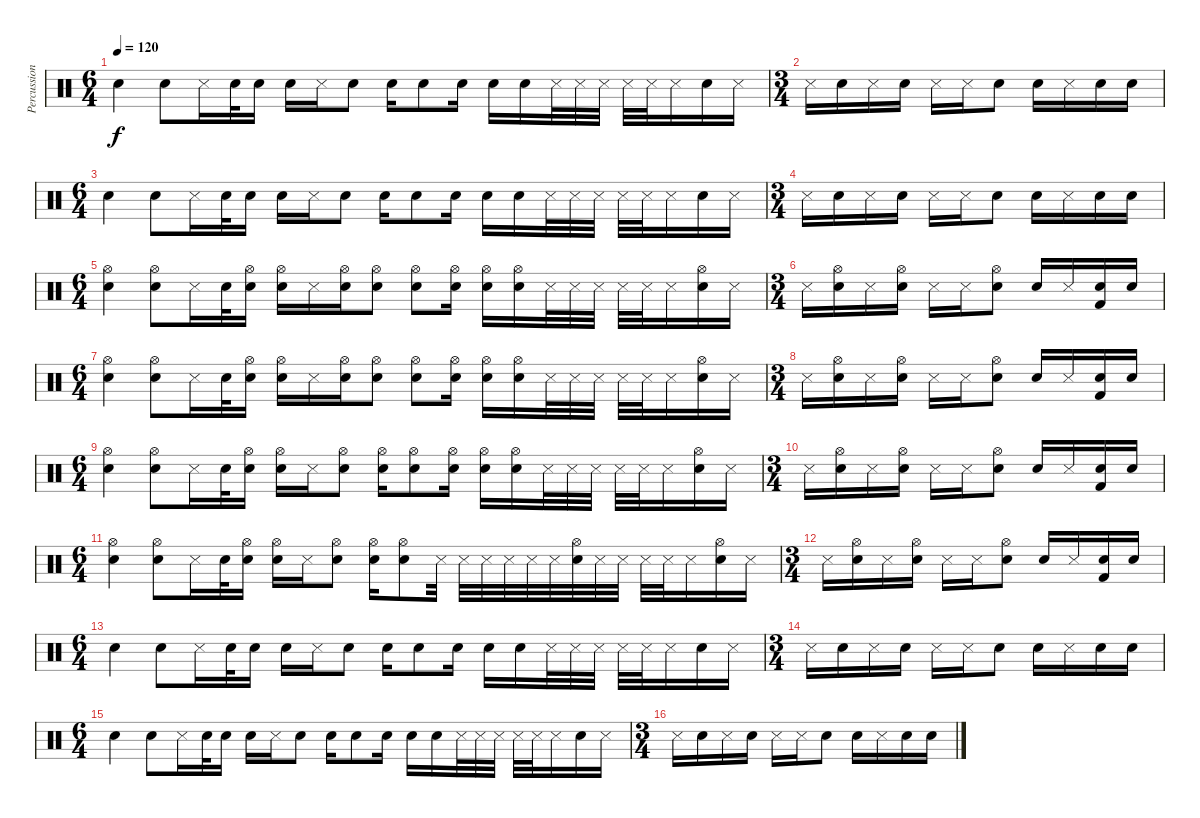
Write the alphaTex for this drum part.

\track ("Percussions" "Percussion") {instrument percussion}
\staff {score}
\articulation defaults
\ts (6 4)
\tempo 120
\clef neutral
\ks c "Snare (hit) 2".4{dy f} "Snare (hit) 2".8 "Metronome (hit)".16 "Snare (hit) 2".32 "Snare (hit) 2".16 "Snare (hit) 2".16 "Metronome (hit)".16 "Snare (hit) 2".8 "Snare (hit) 2".16 "Snare (hit) 2".8 "Snare (hit) 2".16 "Snare (hit) 2".16 "Snare (hit) 2".16 "Metronome (hit)".32 "Metronome (hit)".32 "Metronome (hit)".32 "Metronome (hit)".32 "Metronome (hit)".32 "Metronome (hit)".16 "Snare (hit) 2".16 "Metronome (hit)".16
|
\ts (3 4)
"Metronome (hit)".16 "Snare (hit) 2".16 "Metronome (hit)".16 "Snare (hit) 2".16 "Metronome (hit)".16 "Metronome (hit)".16 "Snare (hit) 2".8 "Snare (hit) 2".16 "Metronome (hit)".16 "Snare (hit) 2".16 "Snare (hit) 2".16 |
\ts (6 4)
"Snare (hit) 2".4 "Snare (hit) 2".8 "Metronome (hit)".16 "Snare (hit) 2".32 "Snare (hit) 2".16 "Snare (hit) 2".16 "Metronome (hit)".16 "Snare (hit) 2".8 "Snare (hit) 2".16 "Snare (hit) 2".8 "Snare (hit) 2".16 "Snare (hit) 2".16 "Snare (hit) 2".16 "Metronome (hit)".32 "Metronome (hit)".32 "Metronome (hit)".32 "Metronome (hit)".32 "Metronome (hit)".32 "Metronome (hit)".16 "Snare (hit) 2".16 "Metronome (hit)".16 |
\ts (3 4)
"Metronome (hit)".16 "Snare (hit) 2".16 "Metronome (hit)".16 "Snare (hit) 2".16 "Metronome (hit)".16 "Metronome (hit)".16 "Snare (hit) 2".8 "Snare (hit) 2".16 "Metronome (hit)".16 "Snare (hit) 2".16 "Snare (hit) 2".16 |
\ts (6 4)
("Hi-Hat (open)" "Snare (hit) 2").4 ("Hi-Hat (open)" "Snare (hit) 2").8 "Metronome (hit)".16 "Snare (hit) 2".32 ("Hi-Hat (open)" "Snare (hit) 2").16 ("Hi-Hat (open)" "Snare (hit) 2").16 "Metronome (hit)".16 ("Hi-Hat (open)" "Snare (hit) 2").16 ("Hi-Hat (open)" "Snare (hit) 2").8 ("Hi-Hat (open)" "Snare (hit) 2").8 ("Hi-Hat (open)" "Snare (hit) 2").16 ("Hi-Hat (open)" "Snare (hit) 2").16 ("Hi-Hat (open)" "Snare (hit) 2").16 "Metronome (hit)".32 "Metronome (hit)".32 "Metronome (hit)".32 "Metronome (hit)".32 "Metronome (hit)".32 "Metronome (hit)".16 ("Hi-Hat (open)" "Snare (hit) 2").16 "Metronome (hit)".16 |
\ts (3 4)
"Metronome (hit)".16 ("Hi-Hat (open)" "Snare (hit) 2").16 "Metronome (hit)".16 ("Hi-Hat (open)" "Snare (hit) 2").16 "Metronome (hit)".16 "Metronome (hit)".16 ("Hi-Hat (open)" "Snare (hit) 2").8 "Snare (hit) 2".16 "Metronome (hit)".16 ("Kick (hit) 2" "Snare (hit) 2").16 "Snare (hit) 2".16 |
\ts (6 4)
("Hi-Hat (open)" "Snare (hit) 2").4 ("Hi-Hat (open)" "Snare (hit) 2").8 "Metronome (hit)".16 "Snare (hit) 2".32 ("Hi-Hat (open)" "Snare (hit) 2").16 ("Hi-Hat (open)" "Snare (hit) 2").16 "Metronome (hit)".16 ("Hi-Hat (open)" "Snare (hit) 2").16 ("Hi-Hat (open)" "Snare (hit) 2").8 ("Hi-Hat (open)" "Snare (hit) 2").8 ("Hi-Hat (open)" "Snare (hit) 2").16 ("Hi-Hat (open)" "Snare (hit) 2").16 ("Hi-Hat (open)" "Snare (hit) 2").16 "Metronome (hit)".32 "Metronome (hit)".32 "Metronome (hit)".32 "Metronome (hit)".32 "Metronome (hit)".32 "Metronome (hit)".16 ("Hi-Hat (open)" "Snare (hit) 2").16 "Metronome (hit)".16 |
\ts (3 4)
"Metronome (hit)".16 ("Hi-Hat (open)" "Snare (hit) 2").16 "Metronome (hit)".16 ("Hi-Hat (open)" "Snare (hit) 2").16 "Metronome (hit)".16 "Metronome (hit)".16 ("Hi-Hat (open)" "Snare (hit) 2").8 "Snare (hit) 2".16 "Metronome (hit)".16 ("Kick (hit) 2" "Snare (hit) 2").16 "Snare (hit) 2".16 |
\ts (6 4)
("Hi-Hat (open)" "Snare (hit) 2").4 ("Hi-Hat (open)" "Snare (hit) 2").8 "Metronome (hit)".16 "Snare (hit) 2".32 ("Hi-Hat (open)" "Snare (hit) 2").16 ("Hi-Hat (open)" "Snare (hit) 2").16 "Metronome (hit)".16 ("Hi-Hat (open)" "Snare (hit) 2").8 ("Hi-Hat (open)" "Snare (hit) 2").16 ("Hi-Hat (open)" "Snare (hit) 2").8 ("Hi-Hat (open)" "Snare (hit) 2").16 ("Hi-Hat (open)" "Snare (hit) 2").16 ("Hi-Hat (open)" "Snare (hit) 2").16 "Metronome (hit)".32 "Metronome (hit)".32 "Metronome (hit)".32 "Metronome (hit)".32 "Metronome (hit)".32 "Metronome (hit)".16 ("Hi-Hat (open)" "Snare (hit) 2").16 "Metronome (hit)".16 |
\ts (3 4)
"Metronome (hit)".16 ("Hi-Hat (open)" "Snare (hit) 2").16 "Metronome (hit)".16 ("Hi-Hat (open)" "Snare (hit) 2").16 "Metronome (hit)".16 "Metronome (hit)".16 ("Hi-Hat (open)" "Snare (hit) 2").8 "Snare (hit) 2".16 "Metronome (hit)".16 ("Kick (hit) 2" "Snare (hit) 2").16 "Snare (hit) 2".16 |
\ts (6 4)
("Hi-Hat (open)" "Snare (hit) 2").4 ("Hi-Hat (open)" "Snare (hit) 2").8 "Metronome (hit)".16 "Snare (hit) 2".32 ("Hi-Hat (open)" "Snare (hit) 2").16 ("Hi-Hat (open)" "Snare (hit) 2").16 "Metronome (hit)".16 ("Hi-Hat (open)" "Snare (hit) 2").8 ("Hi-Hat (open)" "Snare (hit) 2").16 ("Hi-Hat (open)" "Snare (hit) 2").8 "Metronome (hit)".32 "Metronome (hit)".32 "Metronome (hit)".32 "Metronome (hit)".32 "Metronome (hit)".32 "Metronome (hit)".32 ("Hi-Hat (open)" "Snare (hit) 2").32 "Metronome (hit)".32 "Metronome (hit)".32 "Metronome (hit)".32 "Metronome (hit)".32 "Metronome (hit)".16 ("Hi-Hat (open)" "Snare (hit) 2").16 "Metronome (hit)".16 |
\ts (3 4)
"Metronome (hit)".16 ("Hi-Hat (open)" "Snare (hit) 2").16 "Metronome (hit)".16 ("Hi-Hat (open)" "Snare (hit) 2").16 "Metronome (hit)".16 "Metronome (hit)".16 ("Hi-Hat (open)" "Snare (hit) 2").8 "Snare (hit) 2".16 "Metronome (hit)".16 ("Kick (hit) 2" "Snare (hit) 2").16 "Snare (hit) 2".16 |
\ts (6 4)
"Snare (hit) 2".4 "Snare (hit) 2".8 "Metronome (hit)".16 "Snare (hit) 2".32 "Snare (hit) 2".16 "Snare (hit) 2".16 "Metronome (hit)".16 "Snare (hit) 2".8 "Snare (hit) 2".16 "Snare (hit) 2".8 "Snare (hit) 2".16 "Snare (hit) 2".16 "Snare (hit) 2".16 "Metronome (hit)".32 "Metronome (hit)".32 "Metronome (hit)".32 "Metronome (hit)".32 "Metronome (hit)".32 "Metronome (hit)".16 "Snare (hit) 2".16 "Metronome (hit)".16 |
\ts (3 4)
"Metronome (hit)".16 "Snare (hit) 2".16 "Metronome (hit)".16 "Snare (hit) 2".16 "Metronome (hit)".16 "Metronome (hit)".16 "Snare (hit) 2".8 "Snare (hit) 2".16 "Metronome (hit)".16 "Snare (hit) 2".16 "Snare (hit) 2".16 |
\ts (6 4)
"Snare (hit) 2".4 "Snare (hit) 2".8 "Metronome (hit)".16 "Snare (hit) 2".32 "Snare (hit) 2".16 "Snare (hit) 2".16 "Metronome (hit)".16 "Snare (hit) 2".8 "Snare (hit) 2".16 "Snare (hit) 2".8 "Snare (hit) 2".16 "Snare (hit) 2".16 "Snare (hit) 2".16 "Metronome (hit)".32 "Metronome (hit)".32 "Metronome (hit)".32 "Metronome (hit)".32 "Metronome (hit)".32 "Metronome (hit)".16 "Snare (hit) 2".16 "Metronome (hit)".16 |
\ts (3 4)
"Metronome (hit)".16 "Snare (hit) 2".16 "Metronome (hit)".16 "Snare (hit) 2".16 "Metronome (hit)".16 "Metronome (hit)".16 "Snare (hit) 2".8 "Snare (hit) 2".16 "Metronome (hit)".16 "Snare (hit) 2".16 "Snare (hit) 2".16
